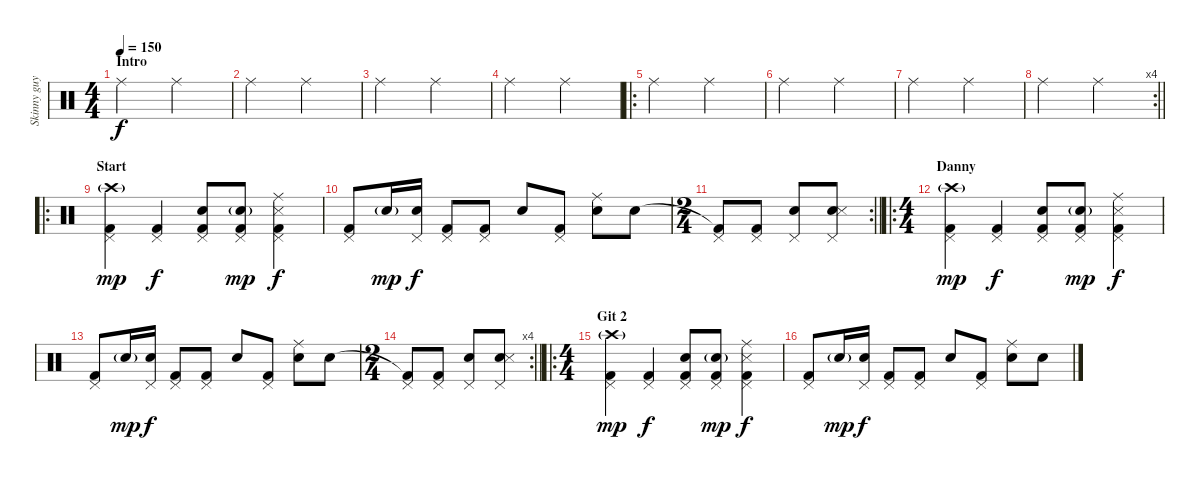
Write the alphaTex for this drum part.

\track ("Skinny guy" "Skinny guy") {instrument percussion}
\staff {score}
\articulation defaults
\ts (4 4)
\section ("" "Intro")
\tempo 150
\clef neutral
\ks c "Ride (middle)".2{dy f} "Ride (middle)".2
|
"Ride (middle)".2 "Ride (middle)".2 |
"Ride (middle)".2 "Ride (middle)".2 |
"Ride (middle)".2 "Ride (middle)".2 |
\ro "Ride (middle)".2 "Ride (middle)".2
|
"Ride (middle)".2 "Ride (middle)".2 |
"Ride (middle)".2 "Ride (middle)".2 |
\rc 4
\barLineRight lightlight "Ride (middle)".2 "Ride (middle)".2
|
\ro
\section ("" "Start")
("Kick (hit) 2" "Pedal Hi-Hat (hit)" "Crash high (hit)"{g}).4{dy mp} ("Kick (hit) 2" "Pedal Hi-Hat (hit)").4{dy f} ("Kick (hit) 2" "Pedal Hi-Hat (hit)" "Snare (hit) 2").8 ("Kick (hit) 2" "Pedal Hi-Hat (hit)" "Snare (hit) 2"{g}).8{dy mp} ("Kick (hit) 2" "Pedal Hi-Hat (hit)" "Snare (side stick) 3" "Ride (middle)").4{dy f} |
("Kick (hit) 2" "Pedal Hi-Hat (hit)").8 "Snare (hit) 2"{g}.16{dy mp} ("Pedal Hi-Hat (hit)" "Snare (hit) 2").16{dy f} ("Kick (hit) 2" "Pedal Hi-Hat (hit)").8 ("Kick (hit) 2" "Pedal Hi-Hat (hit)").8 "Snare (hit) 2".8 ("Kick (hit) 2" "Pedal Hi-Hat (hit)").8 ("Snare (hit) 2" "Ride (middle)").8 "Snare (hit) 2".8 |
\rc 2
\ts (2 4)
\barLineRight lightlight
("Kick (hit) 2"{t} "Pedal Hi-Hat (hit)").8 ("Kick (hit) 2" "Pedal Hi-Hat (hit)").8 ("Pedal Hi-Hat (hit)" "Snare (hit) 2").8 ("Pedal Hi-Hat (hit)" "Snare (hit) 2" "Snare (side stick) 3").8 |
\ro
\ts (4 4)
\section ("" "Danny")
("Kick (hit) 2" "Pedal Hi-Hat (hit)" "Crash high (hit)"{g}).4{dy mp} ("Kick (hit) 2" "Pedal Hi-Hat (hit)").4{dy f} ("Kick (hit) 2" "Pedal Hi-Hat (hit)" "Snare (hit) 2").8 ("Kick (hit) 2" "Pedal Hi-Hat (hit)" "Snare (hit) 2"{g}).8{dy mp} ("Kick (hit) 2" "Pedal Hi-Hat (hit)" "Snare (side stick) 3" "Ride (middle)").4{dy f} |
("Kick (hit) 2" "Pedal Hi-Hat (hit)").8 "Snare (hit) 2"{g}.16{dy mp} ("Pedal Hi-Hat (hit)" "Snare (hit) 2").16{dy f} ("Kick (hit) 2" "Pedal Hi-Hat (hit)").8 ("Kick (hit) 2" "Pedal Hi-Hat (hit)").8 "Snare (hit) 2".8 ("Kick (hit) 2" "Pedal Hi-Hat (hit)").8 ("Snare (hit) 2" "Ride (middle)").8 "Snare (hit) 2".8 |
\rc 4
\ts (2 4)
\barLineRight lightlight
("Kick (hit) 2"{t} "Pedal Hi-Hat (hit)").8 ("Kick (hit) 2" "Pedal Hi-Hat (hit)").8 ("Pedal Hi-Hat (hit)" "Snare (hit) 2").8 ("Pedal Hi-Hat (hit)" "Snare (hit) 2" "Snare (side stick) 3").8 |
\ro
\ts (4 4)
\section ("" "Git 2")
("Kick (hit) 2" "Pedal Hi-Hat (hit)" "Crash high (hit)"{g}).4{dy mp} ("Kick (hit) 2" "Pedal Hi-Hat (hit)").4{dy f} ("Kick (hit) 2" "Pedal Hi-Hat (hit)" "Snare (hit) 2").8 ("Kick (hit) 2" "Pedal Hi-Hat (hit)" "Snare (hit) 2"{g}).8{dy mp} ("Kick (hit) 2" "Pedal Hi-Hat (hit)" "Snare (side stick) 3" "Ride (middle)").4{dy f} |
("Kick (hit) 2" "Pedal Hi-Hat (hit)").8 "Snare (hit) 2"{g}.16{dy mp} ("Pedal Hi-Hat (hit)" "Snare (hit) 2").16{dy f} ("Kick (hit) 2" "Pedal Hi-Hat (hit)").8 ("Kick (hit) 2" "Pedal Hi-Hat (hit)").8 "Snare (hit) 2".8 ("Kick (hit) 2" "Pedal Hi-Hat (hit)").8 ("Snare (hit) 2" "Ride (middle)").8 "Snare (hit) 2".8
